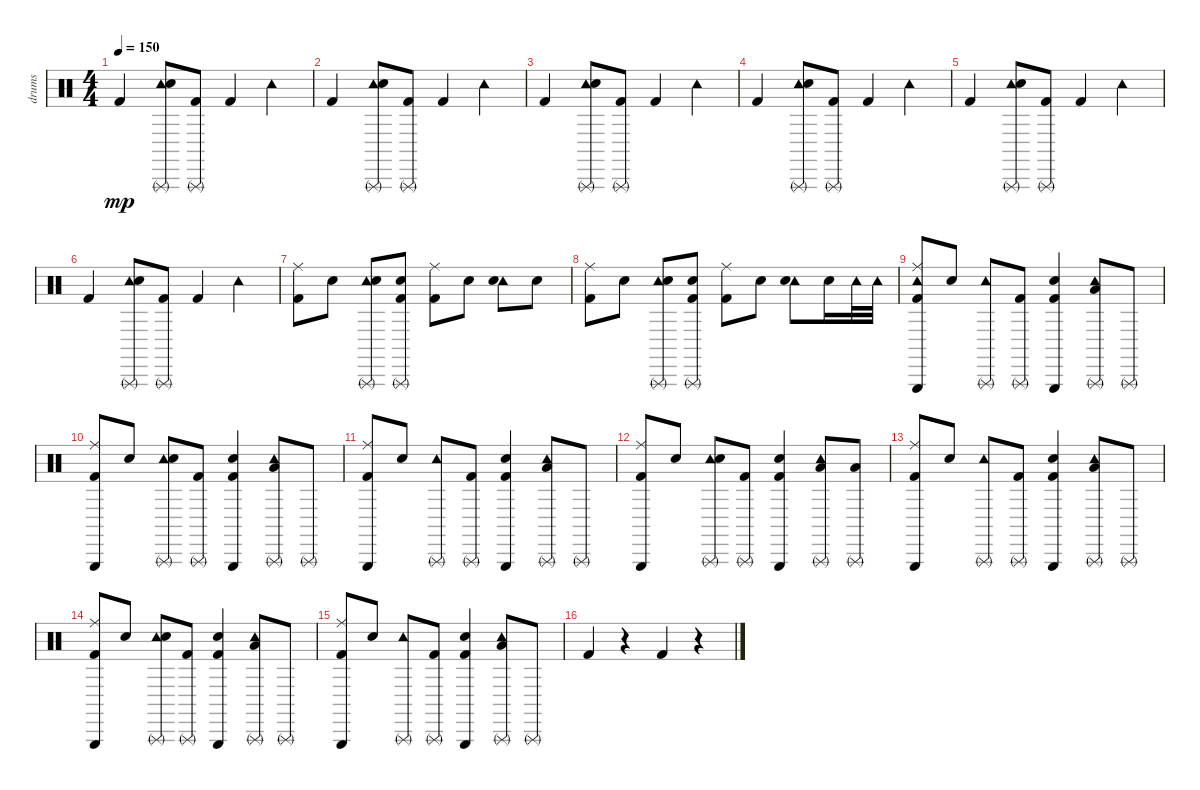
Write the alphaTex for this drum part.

\track ("drums" "drums") {instrument percussion}
\staff {score}
\articulation defaults
\ts (4 4)
\tempo 150
\clef neutral
\ks c "Kick (hit) 2".4{dy mp}
("Triangle (rnute)" "Tambourine (hit)" "Snare (hit) 2").8 ("Triangle (rnute)" "Kick (hit) 2").8 "Kick (hit) 2".4 "Tambourine (hit)".4 |
"Kick (hit) 2".4 ("Triangle (rnute)" "Tambourine (hit)" "Snare (hit) 2").8 ("Triangle (rnute)" "Kick (hit) 2").8 "Kick (hit) 2".4 "Tambourine (hit)".4 |
"Kick (hit) 2".4 ("Triangle (rnute)" "Tambourine (hit)" "Snare (hit) 2").8 ("Triangle (rnute)" "Kick (hit) 2").8 "Kick (hit) 2".4 "Tambourine (hit)".4 |
"Kick (hit) 2".4 ("Triangle (rnute)" "Tambourine (hit)" "Snare (hit) 2").8 ("Triangle (rnute)" "Kick (hit) 2").8 "Kick (hit) 2".4 "Tambourine (hit)".4 |
"Kick (hit) 2".4 ("Triangle (rnute)" "Tambourine (hit)" "Snare (hit) 2").8 ("Triangle (rnute)" "Kick (hit) 2").8 "Kick (hit) 2".4 "Tambourine (hit)".4 |
"Kick (hit) 2".4 ("Triangle (rnute)" "Tambourine (hit)" "Snare (hit) 2").8 ("Triangle (rnute)" "Kick (hit) 2").8 "Kick (hit) 2".4 "Tambourine (hit)".4 |
("Ride (middle)" "Kick (hit) 2").8 "Snare (hit) 2".8 ("Triangle (rnute)" "Tambourine (hit)" "Snare (hit) 2").8 ("Triangle (rnute)" "Kick (hit) 2" "Snare (hit) 2").8 ("Ride (middle)" "Kick (hit) 2").8 "Snare (hit) 2".8 ("Tambourine (hit)" "Snare (hit) 2").8 "Snare (hit) 2".8 |
("Ride (middle)" "Kick (hit) 2").8 "Snare (hit) 2".8 ("Triangle (rnute)" "Tambourine (hit)" "Snare (hit) 2").8 ("Triangle (rnute)" "Kick (hit) 2" "Snare (hit) 2").8 ("Ride (middle)" "Kick (hit) 2").8 "Snare (hit) 2".8 ("Tambourine (hit)" "Snare (hit) 2").8 "Snare (hit) 2".16 "Tambourine (hit)".32 "Tambourine (hit)".32 |
("Triangle (hit)" "Tambourine (hit)" "Ride (middle)" "Kick (hit) 2").8 "Snare (hit) 2".8 ("Triangle (rnute)" "Tambourine (hit)").8 ("Triangle (rnute)" "Kick (hit) 2").8 ("Triangle (hit)" "Kick (hit) 2" "Snare (hit) 2").4 ("Tambourine (hit)" "Low Tom (hit)" "Triangle (rnute)").8 "Triangle (rnute)".8 |
("Triangle (hit)" "Ride (middle)" "Kick (hit) 2").8 "Snare (hit) 2".8 ("Triangle (rnute)" "Tambourine (hit)" "Snare (hit) 2").8 ("Triangle (rnute)" "Kick (hit) 2").8 ("Triangle (hit)" "Kick (hit) 2" "Snare (hit) 2").4 ("Tambourine (hit)" "Low Tom (hit)" "Triangle (rnute)").8 "Triangle (rnute)".8 |
("Triangle (hit)" "Ride (middle)" "Kick (hit) 2").8 "Snare (hit) 2".8 ("Triangle (rnute)" "Tambourine (hit)").8 ("Triangle (rnute)" "Kick (hit) 2").8 ("Triangle (hit)" "Kick (hit) 2" "Snare (hit) 2").4 ("Tambourine (hit)" "Low Tom (hit)" "Triangle (rnute)").8 "Triangle (rnute)".8 |
("Triangle (hit)" "Ride (middle)" "Kick (hit) 2").8 "Snare (hit) 2".8 ("Triangle (rnute)" "Tambourine (hit)" "Snare (hit) 2").8 ("Triangle (rnute)" "Kick (hit) 2").8 ("Triangle (hit)" "Kick (hit) 2" "Snare (hit) 2").4 ("Tambourine (hit)" "Triangle (rnute)" "Low Tom (hit)").8 ("Low Tom (hit)" "Triangle (rnute)").8 |
("Triangle (hit)" "Ride (middle)" "Kick (hit) 2").8 "Snare (hit) 2".8 ("Triangle (rnute)" "Tambourine (hit)").8 ("Triangle (rnute)" "Kick (hit) 2").8 ("Triangle (hit)" "Kick (hit) 2" "Snare (hit) 2").4 ("Tambourine (hit)" "Low Tom (hit)" "Triangle (rnute)").8 "Triangle (rnute)".8 |
("Triangle (hit)" "Ride (middle)" "Kick (hit) 2").8 "Snare (hit) 2".8 ("Triangle (rnute)" "Tambourine (hit)" "Snare (hit) 2").8 ("Triangle (rnute)" "Kick (hit) 2").8 ("Triangle (hit)" "Kick (hit) 2" "Snare (hit) 2").4 ("Tambourine (hit)" "Low Tom (hit)" "Triangle (rnute)").8 "Triangle (rnute)".8 |
("Triangle (hit)" "Ride (middle)" "Kick (hit) 2").8 "Snare (hit) 2".8 ("Triangle (rnute)" "Tambourine (hit)").8 ("Triangle (rnute)" "Kick (hit) 2").8 ("Triangle (hit)" "Kick (hit) 2" "Snare (hit) 2").4 ("Tambourine (hit)" "Low Tom (hit)" "Triangle (rnute)").8 "Triangle (rnute)".8 |
"Kick (hit) 2".4 r.4 "Kick (hit) 2".4 r.4
